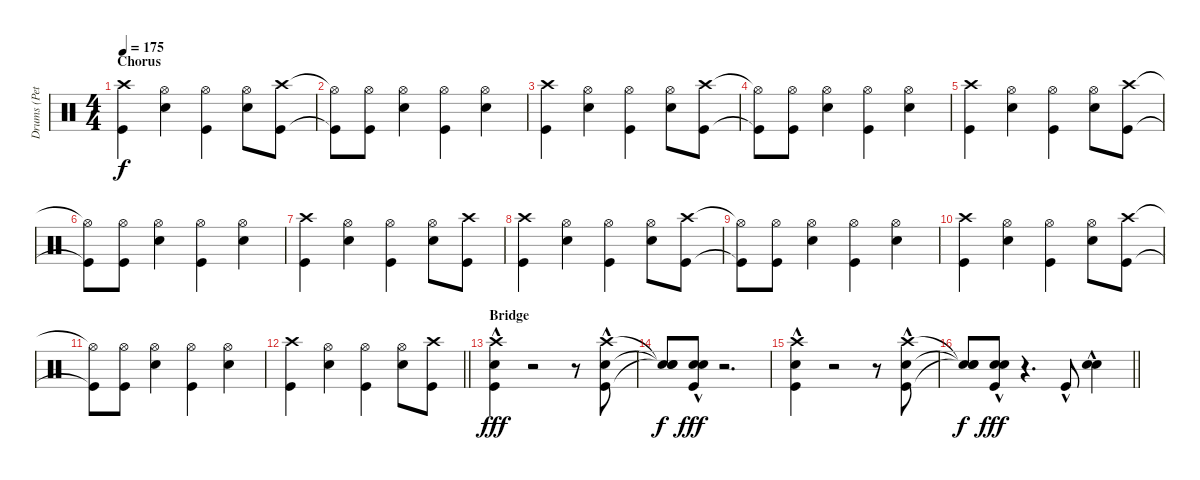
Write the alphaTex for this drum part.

\track ("Drums (Peter Jensen)" "Drums (Pet") {instrument percussion}
\staff {score}
\articulation defaults
\ts (4 4)
\section ("" "Chorus")
\tempo 175
\clef neutral
\ks c
("Crash high (hit)" "Kick (hit)").4{dy f} ("Hi-Hat (open)" "Snare (hit) 2").4 ("Hi-Hat (open)" "Kick (hit)").4 ("Hi-Hat (open)" "Snare (hit) 2").8 ("Crash high (hit)" "Kick (hit)").8 |
("Hi-Hat (open)"{t} "Kick (hit)"{t}).8 ("Hi-Hat (open)" "Kick (hit)").8 ("Hi-Hat (open)" "Snare (hit) 2").4 ("Hi-Hat (open)" "Kick (hit)").4 ("Hi-Hat (open)" "Snare (hit) 2").4 |
("Crash high (hit)" "Kick (hit)").4 ("Hi-Hat (open)" "Snare (hit) 2").4 ("Hi-Hat (open)" "Kick (hit)").4 ("Hi-Hat (open)" "Snare (hit) 2").8 ("Crash high (hit)" "Kick (hit)").8 |
("Hi-Hat (open)"{t} "Kick (hit)"{t}).8 ("Hi-Hat (open)" "Kick (hit)").8 ("Hi-Hat (open)" "Snare (hit) 2").4 ("Hi-Hat (open)" "Kick (hit)").4 ("Hi-Hat (open)" "Snare (hit) 2").4 |
("Crash high (hit)" "Kick (hit)").4 ("Hi-Hat (open)" "Snare (hit) 2").4 ("Hi-Hat (open)" "Kick (hit)").4 ("Hi-Hat (open)" "Snare (hit) 2").8 ("Crash high (hit)" "Kick (hit)").8 |
("Hi-Hat (open)"{t} "Kick (hit)"{t}).8 ("Hi-Hat (open)" "Kick (hit)").8 ("Hi-Hat (open)" "Snare (hit) 2").4 ("Hi-Hat (open)" "Kick (hit)").4 ("Hi-Hat (open)" "Snare (hit) 2").4 |
("Crash high (hit)" "Kick (hit)").4 ("Hi-Hat (open)" "Snare (hit) 2").4 ("Hi-Hat (open)" "Kick (hit)").4 ("Hi-Hat (open)" "Snare (hit) 2").8 ("Crash high (hit)" "Kick (hit)").8 |
("Crash high (hit)" "Kick (hit)").4 ("Hi-Hat (open)" "Snare (hit) 2").4 ("Hi-Hat (open)" "Kick (hit)").4 ("Hi-Hat (open)" "Snare (hit) 2").8 ("Crash high (hit)" "Kick (hit)").8 |
("Hi-Hat (open)"{t} "Kick (hit)"{t}).8 ("Hi-Hat (open)" "Kick (hit)").8 ("Hi-Hat (open)" "Snare (hit) 2").4 ("Hi-Hat (open)" "Kick (hit)").4 ("Hi-Hat (open)" "Snare (hit) 2").4 |
("Crash high (hit)" "Kick (hit)").4 ("Hi-Hat (open)" "Snare (hit) 2").4 ("Hi-Hat (open)" "Kick (hit)").4 ("Hi-Hat (open)" "Snare (hit) 2").8 ("Crash high (hit)" "Kick (hit)").8 |
("Hi-Hat (open)"{t} "Kick (hit)"{t}).8 ("Hi-Hat (open)" "Kick (hit)").8 ("Hi-Hat (open)" "Snare (hit) 2").4 ("Hi-Hat (open)" "Kick (hit)").4 ("Hi-Hat (open)" "Snare (hit) 2").4 |
\barLineRight lightlight
("Crash high (hit)" "Kick (hit)").4 ("Hi-Hat (open)" "Snare (hit) 2").4 ("Hi-Hat (open)" "Kick (hit)").4 ("Hi-Hat (open)" "Snare (hit) 2").8 ("Crash high (hit)" "Kick (hit)").8 |
\section ("" "Bridge")
("Crash high (hit)"{hac} "Snare (hit) 2"{hac} "Kick (hit)"{hac}).4{dy fff} r.2 r.8 ("Crash high (hit)"{hac} "Snare (hit) 2"{hac} "Kick (hit)"{hac}).8 |
("Snare (hit)"{t} "Snare (hit)"{t} "Snare (hit)"{t}).8{dy f} ("Snare (hit) 2"{hac} "Snare (hit)"{hac} "Kick (hit)"{hac}).8{dy fff} r.2{d} |
("Crash high (hit)"{hac} "Snare (hit) 2"{hac} "Kick (hit)"{hac}).4 r.2 r.8 ("Crash high (hit)"{hac} "Snare (hit) 2"{hac} "Kick (hit)"{hac}).8 |
\barLineRight lightlight
("Snare (hit)"{t} "Snare (hit)"{t} "Snare (hit)"{t}).8{dy f} ("Snare (hit) 2"{hac} "Snare (hit)"{hac} "Kick (hit)"{hac}).8{dy fff} r.4{d} "Kick (hit)"{hac}.8 ("Snare (hit) 2"{hac} "Snare (hit) 2"{hac}).4
